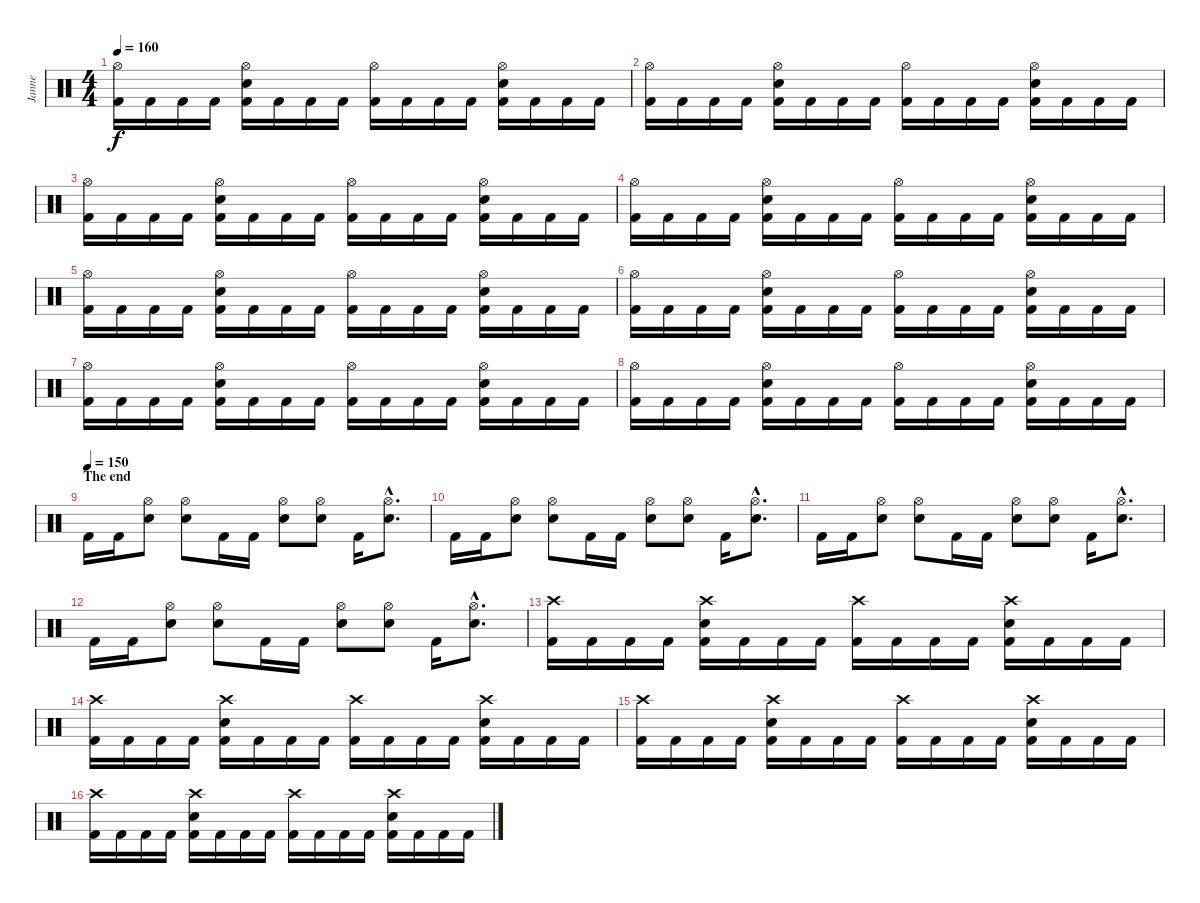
\track ("Janne" "Janne") {instrument percussion}
\staff {score}
\articulation defaults
\ts (4 4)
\tempo 160
\clef neutral
\ks c
("Hi-Hat (open)" "Kick (hit) 2").16{dy f} "Kick (hit) 2".16 "Kick (hit) 2".16 "Kick (hit) 2".16 ("Hi-Hat (open)" "Electric Snare (hit)" "Kick (hit) 2").16 "Kick (hit) 2".16 "Kick (hit) 2".16 "Kick (hit) 2".16 ("Hi-Hat (open)" "Kick (hit) 2").16 "Kick (hit) 2".16 "Kick (hit) 2".16 "Kick (hit) 2".16 ("Hi-Hat (open)" "Electric Snare (hit)" "Kick (hit) 2").16 "Kick (hit) 2".16 "Kick (hit) 2".16 "Kick (hit) 2".16 |
("Hi-Hat (open)" "Kick (hit) 2").16 "Kick (hit) 2".16 "Kick (hit) 2".16 "Kick (hit) 2".16 ("Hi-Hat (open)" "Electric Snare (hit)" "Kick (hit) 2").16 "Kick (hit) 2".16 "Kick (hit) 2".16 "Kick (hit) 2".16 ("Hi-Hat (open)" "Kick (hit) 2").16 "Kick (hit) 2".16 "Kick (hit) 2".16 "Kick (hit) 2".16 ("Hi-Hat (open)" "Electric Snare (hit)" "Kick (hit) 2").16 "Kick (hit) 2".16 "Kick (hit) 2".16 "Kick (hit) 2".16 |
("Hi-Hat (open)" "Kick (hit) 2").16 "Kick (hit) 2".16 "Kick (hit) 2".16 "Kick (hit) 2".16 ("Hi-Hat (open)" "Electric Snare (hit)" "Kick (hit) 2").16 "Kick (hit) 2".16 "Kick (hit) 2".16 "Kick (hit) 2".16 ("Hi-Hat (open)" "Kick (hit) 2").16 "Kick (hit) 2".16 "Kick (hit) 2".16 "Kick (hit) 2".16 ("Hi-Hat (open)" "Electric Snare (hit)" "Kick (hit) 2").16 "Kick (hit) 2".16 "Kick (hit) 2".16 "Kick (hit) 2".16 |
("Hi-Hat (open)" "Kick (hit) 2").16 "Kick (hit) 2".16 "Kick (hit) 2".16 "Kick (hit) 2".16 ("Hi-Hat (open)" "Electric Snare (hit)" "Kick (hit) 2").16 "Kick (hit) 2".16 "Kick (hit) 2".16 "Kick (hit) 2".16 ("Hi-Hat (open)" "Kick (hit) 2").16 "Kick (hit) 2".16 "Kick (hit) 2".16 "Kick (hit) 2".16 ("Hi-Hat (open)" "Electric Snare (hit)" "Kick (hit) 2").16 "Kick (hit) 2".16 "Kick (hit) 2".16 "Kick (hit) 2".16 |
("Hi-Hat (open)" "Kick (hit) 2").16 "Kick (hit) 2".16 "Kick (hit) 2".16 "Kick (hit) 2".16 ("Hi-Hat (open)" "Electric Snare (hit)" "Kick (hit) 2").16 "Kick (hit) 2".16 "Kick (hit) 2".16 "Kick (hit) 2".16 ("Hi-Hat (open)" "Kick (hit) 2").16 "Kick (hit) 2".16 "Kick (hit) 2".16 "Kick (hit) 2".16 ("Hi-Hat (open)" "Electric Snare (hit)" "Kick (hit) 2").16 "Kick (hit) 2".16 "Kick (hit) 2".16 "Kick (hit) 2".16 |
("Hi-Hat (open)" "Kick (hit) 2").16 "Kick (hit) 2".16 "Kick (hit) 2".16 "Kick (hit) 2".16 ("Hi-Hat (open)" "Electric Snare (hit)" "Kick (hit) 2").16 "Kick (hit) 2".16 "Kick (hit) 2".16 "Kick (hit) 2".16 ("Hi-Hat (open)" "Kick (hit) 2").16 "Kick (hit) 2".16 "Kick (hit) 2".16 "Kick (hit) 2".16 ("Hi-Hat (open)" "Electric Snare (hit)" "Kick (hit) 2").16 "Kick (hit) 2".16 "Kick (hit) 2".16 "Kick (hit) 2".16 |
("Hi-Hat (open)" "Kick (hit) 2").16 "Kick (hit) 2".16 "Kick (hit) 2".16 "Kick (hit) 2".16 ("Hi-Hat (open)" "Electric Snare (hit)" "Kick (hit) 2").16 "Kick (hit) 2".16 "Kick (hit) 2".16 "Kick (hit) 2".16 ("Hi-Hat (open)" "Kick (hit) 2").16 "Kick (hit) 2".16 "Kick (hit) 2".16 "Kick (hit) 2".16 ("Hi-Hat (open)" "Electric Snare (hit)" "Kick (hit) 2").16 "Kick (hit) 2".16 "Kick (hit) 2".16 "Kick (hit) 2".16 |
("Hi-Hat (open)" "Kick (hit) 2").16 "Kick (hit) 2".16 "Kick (hit) 2".16 "Kick (hit) 2".16 ("Hi-Hat (open)" "Electric Snare (hit)" "Kick (hit) 2").16 "Kick (hit) 2".16 "Kick (hit) 2".16 "Kick (hit) 2".16 ("Hi-Hat (open)" "Kick (hit) 2").16 "Kick (hit) 2".16 "Kick (hit) 2".16 "Kick (hit) 2".16 ("Hi-Hat (open)" "Electric Snare (hit)" "Kick (hit) 2").16 "Kick (hit) 2".16 "Kick (hit) 2".16 "Kick (hit) 2".16 |
\section ("" "The end")
\tempo (150)
"Kick (hit) 2".16 "Kick (hit) 2".16 ("Hi-Hat (open)" "Electric Snare (hit)").8 ("Hi-Hat (open)" "Electric Snare (hit)").8 "Kick (hit) 2".16 "Kick (hit) 2".16 ("Hi-Hat (open)" "Electric Snare (hit)").8 ("Hi-Hat (open)" "Electric Snare (hit)").8 "Kick (hit) 2".16 ("Hi-Hat (open)"{hac} "Electric Snare (hit)"{hac}).8{d} |
"Kick (hit) 2".16 "Kick (hit) 2".16 ("Hi-Hat (open)" "Electric Snare (hit)").8 ("Hi-Hat (open)" "Electric Snare (hit)").8 "Kick (hit) 2".16 "Kick (hit) 2".16 ("Hi-Hat (open)" "Electric Snare (hit)").8 ("Hi-Hat (open)" "Electric Snare (hit)").8 "Kick (hit) 2".16 ("Hi-Hat (open)"{hac} "Electric Snare (hit)"{hac}).8{d} |
"Kick (hit) 2".16 "Kick (hit) 2".16 ("Hi-Hat (open)" "Electric Snare (hit)").8 ("Hi-Hat (open)" "Electric Snare (hit)").8 "Kick (hit) 2".16 "Kick (hit) 2".16 ("Hi-Hat (open)" "Electric Snare (hit)").8 ("Hi-Hat (open)" "Electric Snare (hit)").8 "Kick (hit) 2".16 ("Hi-Hat (open)"{hac} "Electric Snare (hit)"{hac}).8{d} |
"Kick (hit) 2".16 "Kick (hit) 2".16 ("Hi-Hat (open)" "Electric Snare (hit)").8 ("Hi-Hat (open)" "Electric Snare (hit)").8 "Kick (hit) 2".16 "Kick (hit) 2".16 ("Hi-Hat (open)" "Electric Snare (hit)").8 ("Hi-Hat (open)" "Electric Snare (hit)").8 "Kick (hit) 2".16 ("Hi-Hat (open)"{hac} "Electric Snare (hit)"{hac}).8{d} |
("Crash high (hit)" "Kick (hit) 2").16 "Kick (hit) 2".16 "Kick (hit) 2".16 "Kick (hit) 2".16 ("Crash high (hit)" "Electric Snare (hit)" "Kick (hit) 2").16 "Kick (hit) 2".16 "Kick (hit) 2".16 "Kick (hit) 2".16 ("Crash high (hit)" "Kick (hit) 2").16 "Kick (hit) 2".16 "Kick (hit) 2".16 "Kick (hit) 2".16 ("Crash high (hit)" "Electric Snare (hit)" "Kick (hit) 2").16 "Kick (hit) 2".16 "Kick (hit) 2".16 "Kick (hit) 2".16 |
("Crash high (hit)" "Kick (hit) 2").16 "Kick (hit) 2".16 "Kick (hit) 2".16 "Kick (hit) 2".16 ("Crash high (hit)" "Electric Snare (hit)" "Kick (hit) 2").16 "Kick (hit) 2".16 "Kick (hit) 2".16 "Kick (hit) 2".16 ("Crash high (hit)" "Kick (hit) 2").16 "Kick (hit) 2".16 "Kick (hit) 2".16 "Kick (hit) 2".16 ("Crash high (hit)" "Electric Snare (hit)" "Kick (hit) 2").16 "Kick (hit) 2".16 "Kick (hit) 2".16 "Kick (hit) 2".16 |
("Crash high (hit)" "Kick (hit) 2").16 "Kick (hit) 2".16 "Kick (hit) 2".16 "Kick (hit) 2".16 ("Crash high (hit)" "Electric Snare (hit)" "Kick (hit) 2").16 "Kick (hit) 2".16 "Kick (hit) 2".16 "Kick (hit) 2".16 ("Crash high (hit)" "Kick (hit) 2").16 "Kick (hit) 2".16 "Kick (hit) 2".16 "Kick (hit) 2".16 ("Crash high (hit)" "Electric Snare (hit)" "Kick (hit) 2").16 "Kick (hit) 2".16 "Kick (hit) 2".16 "Kick (hit) 2".16 |
("Crash high (hit)" "Kick (hit) 2").16 "Kick (hit) 2".16 "Kick (hit) 2".16 "Kick (hit) 2".16 ("Crash high (hit)" "Electric Snare (hit)" "Kick (hit) 2").16 "Kick (hit) 2".16 "Kick (hit) 2".16 "Kick (hit) 2".16 ("Crash high (hit)" "Kick (hit) 2").16 "Kick (hit) 2".16 "Kick (hit) 2".16 "Kick (hit) 2".16 ("Crash high (hit)" "Electric Snare (hit)" "Kick (hit) 2").16 "Kick (hit) 2".16 "Kick (hit) 2".16 "Kick (hit) 2".16
